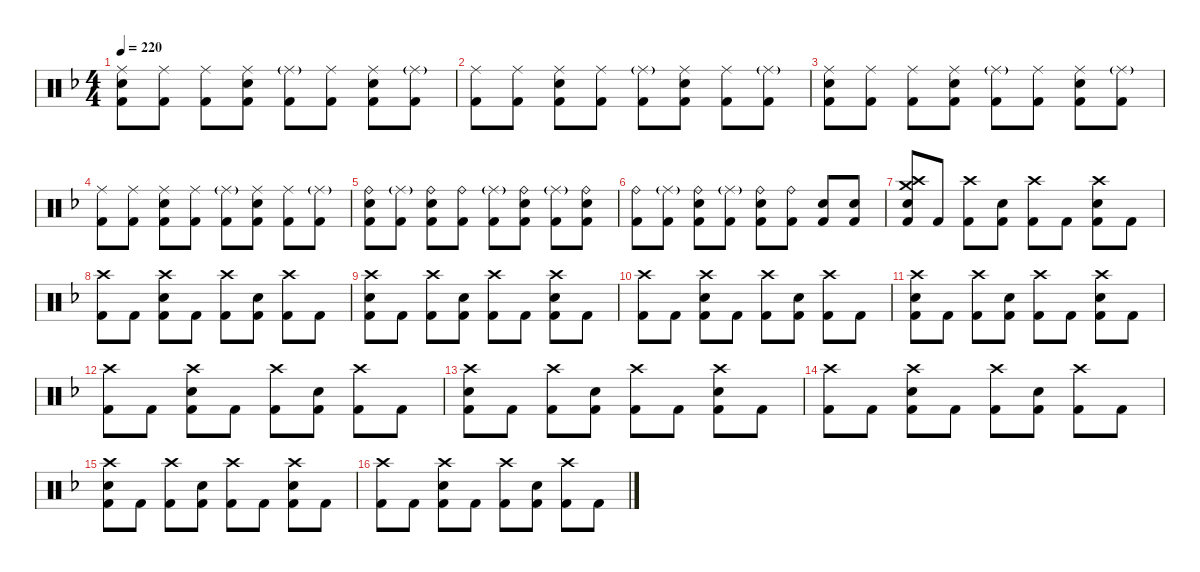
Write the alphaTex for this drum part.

\hideDynamics
\bracketExtendMode nobrackets
\singleTrackTrackNamePolicy hidden
\multiTrackTrackNamePolicy hidden
\firstSystemTrackNameMode fullname
\firstSystemTrackNameOrientation horizontal
\otherSystemsTrackNameOrientation horizontal
\track ("Drumkit" "Drums") {instrument percussion}
\staff {score}
\articulation defaults
\ts (4 4)
\tempo 220
\clef neutral
\ks dminor
("Ride (middle)"{acc forcenatural} "Snare (hit) 2"{acc forcenatural} "Kick (hit) 2"{acc forcenatural}).8{dy mf beam Down} ("Ride (middle)"{acc forcenatural} "Kick (hit) 2"{acc forcenatural}).8{beam Down} ("Ride (middle)"{acc forcenatural} "Kick (hit) 2"{acc forcenatural}).8{beam Down} ("Ride (middle)"{acc forcenatural} "Snare (hit) 2"{acc forcenatural} "Kick (hit) 2"{acc forcenatural}).8{beam Down} ("Ride (middle)"{g acc forcenatural} "Kick (hit) 2"{acc forcenatural}).8{dy f beam Down} ("Ride (middle)"{acc forcenatural} "Kick (hit) 2"{acc forcenatural}).8{dy mf beam Down} ("Ride (middle)"{acc forcenatural} "Snare (hit) 2"{acc forcenatural} "Kick (hit) 2"{acc forcenatural}).8{beam Down} ("Ride (middle)"{g acc forcenatural} "Kick (hit) 2"{acc forcenatural}).8{dy f beam Down} |
("Ride (middle)"{acc forcenatural} "Kick (hit) 2"{acc forcenatural}).8{dy mf beam Down} ("Ride (middle)"{acc forcenatural} "Kick (hit) 2"{acc forcenatural}).8{beam Down} ("Ride (middle)"{acc forcenatural} "Snare (hit) 2"{acc forcenatural} "Kick (hit) 2"{acc forcenatural}).8{beam Down} ("Ride (middle)"{acc forcenatural} "Kick (hit) 2"{acc forcenatural}).8{beam Down} ("Ride (middle)"{g acc forcenatural} "Kick (hit) 2"{acc forcenatural}).8{dy f beam Down} ("Ride (middle)"{acc forcenatural} "Snare (hit) 2"{acc forcenatural} "Kick (hit) 2"{acc forcenatural}).8{dy mf beam Down} ("Ride (middle)"{acc forcenatural} "Kick (hit) 2"{acc forcenatural}).8{beam Down} ("Ride (middle)"{g acc forcenatural} "Kick (hit) 2"{acc forcenatural}).8{dy f beam Down} |
("Ride (middle)"{acc forcenatural} "Snare (hit) 2"{acc forcenatural} "Kick (hit) 2"{acc forcenatural}).8{dy mf beam Down} ("Ride (middle)"{acc forcenatural} "Kick (hit) 2"{acc forcenatural}).8{beam Down} ("Ride (middle)"{acc forcenatural} "Kick (hit) 2"{acc forcenatural}).8{beam Down} ("Ride (middle)"{acc forcenatural} "Snare (hit) 2"{acc forcenatural} "Kick (hit) 2"{acc forcenatural}).8{beam Down} ("Ride (middle)"{g acc forcenatural} "Kick (hit) 2"{acc forcenatural}).8{dy f beam Down} ("Ride (middle)"{acc forcenatural} "Kick (hit) 2"{acc forcenatural}).8{dy mf beam Down} ("Ride (middle)"{acc forcenatural} "Snare (hit) 2"{acc forcenatural} "Kick (hit) 2"{acc forcenatural}).8{beam Down} ("Ride (middle)"{g acc forcenatural} "Kick (hit) 2"{acc forcenatural}).8{dy f beam Down} |
("Ride (middle)"{acc forcenatural} "Kick (hit) 2"{acc forcenatural}).8{dy mf beam Down} ("Ride (middle)"{acc forcenatural} "Kick (hit) 2"{acc forcenatural}).8{beam Down} ("Ride (middle)"{acc forcenatural} "Snare (hit) 2"{acc forcenatural} "Kick (hit) 2"{acc forcenatural}).8{beam Down} ("Ride (middle)"{acc forcenatural} "Kick (hit) 2"{acc forcenatural}).8{beam Down} ("Ride (middle)"{g acc forcenatural} "Kick (hit) 2"{acc forcenatural}).8{dy f beam Down} ("Ride (middle)"{acc forcenatural} "Snare (hit) 2"{acc forcenatural} "Kick (hit) 2"{acc forcenatural}).8{dy mf beam Down} ("Ride (middle)"{acc forcenatural} "Kick (hit) 2"{acc forcenatural}).8{beam Down} ("Ride (middle)"{g acc forcenatural} "Kick (hit) 2"{acc forcenatural}).8{dy f beam Down} |
("Ride (bell)"{acc forcenatural} "Snare (hit) 2"{acc forcenatural} "Kick (hit) 2"{acc forcenatural}).8{dy mf beam Down} ("Ride (middle)"{g acc forcenatural} "Kick (hit) 2"{acc forcenatural}).8{dy f beam Down} ("Ride (bell)"{acc forcenatural} "Snare (hit) 2"{acc forcenatural} "Kick (hit) 2"{acc forcenatural}).8{dy mf beam Down} ("Ride (bell)"{acc forcenatural} "Kick (hit) 2"{acc forcenatural}).8{beam Down} ("Ride (middle)"{g acc forcenatural} "Kick (hit) 2"{acc forcenatural}).8{dy f beam Down} ("Ride (bell)"{acc forcenatural} "Snare (hit) 2"{acc forcenatural} "Kick (hit) 2"{acc forcenatural}).8{dy mf beam Down} ("Ride (middle)"{g acc forcenatural} "Kick (hit) 2"{acc forcenatural}).8{dy f beam Down} ("Ride (bell)"{acc forcenatural} "Snare (hit) 2"{acc forcenatural} "Kick (hit) 2"{acc forcenatural}).8{dy mf beam Down} |
("Ride (bell)"{acc forcenatural} "Kick (hit) 2"{acc forcenatural}).8{beam Down} ("Ride (middle)"{g acc forcenatural} "Kick (hit) 2"{acc forcenatural}).8{dy f beam Down} ("Ride (bell)"{acc forcenatural} "Snare (hit) 2"{acc forcenatural} "Kick (hit) 2"{acc forcenatural}).8{dy mf beam Down} ("Ride (middle)"{g acc forcenatural} "Kick (hit) 2"{acc forcenatural}).8{dy f beam Down} ("Ride (bell)"{acc forcenatural} "Snare (hit) 2"{acc forcenatural} "Kick (hit) 2"{acc forcenatural}).8{dy mf beam Down} ("Ride (bell)"{acc forcenatural} "Kick (hit) 2"{acc forcenatural}).8{beam Down} ("Snare (hit) 2"{acc forcenatural} "Kick (hit) 2"{acc forcenatural}).8{dy f beam Up} ("Snare (hit) 2"{acc forcenatural} "Kick (hit) 2"{acc forcenatural}).8{beam Up} |
("Crash medium (hit)"{acc forcenatural} "Crash high (hit)"{acc forcenatural} "Snare (hit) 2"{acc forcenatural} "Kick (hit) 2"{acc forcenatural}).8{beam Up} "Kick (hit) 2"{acc forcenatural}.8{beam Up} ("Crash high (hit)"{acc forcenatural} "Kick (hit) 2"{acc forcenatural}).8{dy mf beam Down} ("Snare (hit) 2"{acc forcenatural} "Kick (hit) 2"{acc forcenatural}).8{dy f beam Down} ("Crash high (hit)"{acc forcenatural} "Kick (hit) 2"{acc forcenatural}).8{dy mf beam Down} "Kick (hit) 2"{acc forcenatural}.8{dy f beam Down} ("Crash high (hit)"{acc forcenatural} "Snare (hit) 2"{acc forcenatural} "Kick (hit) 2"{acc forcenatural}).8{dy mf beam Down} "Kick (hit) 2"{acc forcenatural}.8{dy f beam Down} |
("Crash high (hit)"{acc forcenatural} "Kick (hit) 2"{acc forcenatural}).8{dy mf beam Down} "Kick (hit) 2"{acc forcenatural}.8{dy f beam Down} ("Crash high (hit)"{acc forcenatural} "Snare (hit) 2"{acc forcenatural} "Kick (hit) 2"{acc forcenatural}).8{dy mf beam Down} "Kick (hit) 2"{acc forcenatural}.8{dy f beam Down} ("Crash high (hit)"{acc forcenatural} "Kick (hit) 2"{acc forcenatural}).8{dy mf beam Down} ("Snare (hit) 2"{acc forcenatural} "Kick (hit) 2"{acc forcenatural}).8{dy f beam Down} ("Crash high (hit)"{acc forcenatural} "Kick (hit) 2"{acc forcenatural}).8{dy mf beam Down} "Kick (hit) 2"{acc forcenatural}.8{dy f beam Down} |
("Crash high (hit)"{acc forcenatural} "Snare (hit) 2"{acc forcenatural} "Kick (hit) 2"{acc forcenatural}).8{dy mf beam Down} "Kick (hit) 2"{acc forcenatural}.8{dy f beam Down} ("Crash high (hit)"{acc forcenatural} "Kick (hit) 2"{acc forcenatural}).8{dy mf beam Down} ("Snare (hit) 2"{acc forcenatural} "Kick (hit) 2"{acc forcenatural}).8{dy f beam Down} ("Crash high (hit)"{acc forcenatural} "Kick (hit) 2"{acc forcenatural}).8{dy mf beam Down} "Kick (hit) 2"{acc forcenatural}.8{dy f beam Down} ("Crash high (hit)"{acc forcenatural} "Snare (hit) 2"{acc forcenatural} "Kick (hit) 2"{acc forcenatural}).8{dy mf beam Down} "Kick (hit) 2"{acc forcenatural}.8{dy f beam Down} |
("Crash high (hit)"{acc forcenatural} "Kick (hit) 2"{acc forcenatural}).8{dy mf beam Down} "Kick (hit) 2"{acc forcenatural}.8{dy f beam Down} ("Crash high (hit)"{acc forcenatural} "Snare (hit) 2"{acc forcenatural} "Kick (hit) 2"{acc forcenatural}).8{dy mf beam Down} "Kick (hit) 2"{acc forcenatural}.8{dy f beam Down} ("Crash high (hit)"{acc forcenatural} "Kick (hit) 2"{acc forcenatural}).8{dy mf beam Down} ("Snare (hit) 2"{acc forcenatural} "Kick (hit) 2"{acc forcenatural}).8{dy f beam Down} ("Crash high (hit)"{acc forcenatural} "Kick (hit) 2"{acc forcenatural}).8{dy mf beam Down} "Kick (hit) 2"{acc forcenatural}.8{dy f beam Down} |
("Crash high (hit)"{acc forcenatural} "Snare (hit) 2"{acc forcenatural} "Kick (hit) 2"{acc forcenatural}).8{dy mf beam Down} "Kick (hit) 2"{acc forcenatural}.8{dy f beam Down} ("Crash high (hit)"{acc forcenatural} "Kick (hit) 2"{acc forcenatural}).8{dy mf beam Down} ("Snare (hit) 2"{acc forcenatural} "Kick (hit) 2"{acc forcenatural}).8{dy f beam Down} ("Crash high (hit)"{acc forcenatural} "Kick (hit) 2"{acc forcenatural}).8{dy mf beam Down} "Kick (hit) 2"{acc forcenatural}.8{dy f beam Down} ("Crash high (hit)"{acc forcenatural} "Snare (hit) 2"{acc forcenatural} "Kick (hit) 2"{acc forcenatural}).8{dy mf beam Down} "Kick (hit) 2"{acc forcenatural}.8{dy f beam Down} |
("Crash high (hit)"{acc forcenatural} "Kick (hit) 2"{acc forcenatural}).8{dy mf beam Down} "Kick (hit) 2"{acc forcenatural}.8{dy f beam Down} ("Crash high (hit)"{acc forcenatural} "Snare (hit) 2"{acc forcenatural} "Kick (hit) 2"{acc forcenatural}).8{dy mf beam Down} "Kick (hit) 2"{acc forcenatural}.8{dy f beam Down} ("Crash high (hit)"{acc forcenatural} "Kick (hit) 2"{acc forcenatural}).8{dy mf beam Down} ("Snare (hit) 2"{acc forcenatural} "Kick (hit) 2"{acc forcenatural}).8{dy f beam Down} ("Crash high (hit)"{acc forcenatural} "Kick (hit) 2"{acc forcenatural}).8{dy mf beam Down} "Kick (hit) 2"{acc forcenatural}.8{dy f beam Down} |
("Crash high (hit)"{acc forcenatural} "Snare (hit) 2"{acc forcenatural} "Kick (hit) 2"{acc forcenatural}).8{dy mf beam Down} "Kick (hit) 2"{acc forcenatural}.8{dy f beam Down} ("Crash high (hit)"{acc forcenatural} "Kick (hit) 2"{acc forcenatural}).8{dy mf beam Down} ("Snare (hit) 2"{acc forcenatural} "Kick (hit) 2"{acc forcenatural}).8{dy f beam Down} ("Crash high (hit)"{acc forcenatural} "Kick (hit) 2"{acc forcenatural}).8{dy mf beam Down} "Kick (hit) 2"{acc forcenatural}.8{dy f beam Down} ("Crash high (hit)"{acc forcenatural} "Snare (hit) 2"{acc forcenatural} "Kick (hit) 2"{acc forcenatural}).8{dy mf beam Down} "Kick (hit) 2"{acc forcenatural}.8{dy f beam Down} |
("Crash high (hit)"{acc forcenatural} "Kick (hit) 2"{acc forcenatural}).8{dy mf beam Down} "Kick (hit) 2"{acc forcenatural}.8{dy f beam Down} ("Crash high (hit)"{acc forcenatural} "Snare (hit) 2"{acc forcenatural} "Kick (hit) 2"{acc forcenatural}).8{dy mf beam Down} "Kick (hit) 2"{acc forcenatural}.8{dy f beam Down} ("Crash high (hit)"{acc forcenatural} "Kick (hit) 2"{acc forcenatural}).8{dy mf beam Down} ("Snare (hit) 2"{acc forcenatural} "Kick (hit) 2"{acc forcenatural}).8{dy f beam Down} ("Crash high (hit)"{acc forcenatural} "Kick (hit) 2"{acc forcenatural}).8{dy mf beam Down} "Kick (hit) 2"{acc forcenatural}.8{dy f beam Down} |
("Crash high (hit)"{acc forcenatural} "Snare (hit) 2"{acc forcenatural} "Kick (hit) 2"{acc forcenatural}).8{dy mf beam Down} "Kick (hit) 2"{acc forcenatural}.8{dy f beam Down} ("Crash high (hit)"{acc forcenatural} "Kick (hit) 2"{acc forcenatural}).8{dy mf beam Down} ("Snare (hit) 2"{acc forcenatural} "Kick (hit) 2"{acc forcenatural}).8{dy f beam Down} ("Crash high (hit)"{acc forcenatural} "Kick (hit) 2"{acc forcenatural}).8{dy mf beam Down} "Kick (hit) 2"{acc forcenatural}.8{dy f beam Down} ("Crash high (hit)"{acc forcenatural} "Snare (hit) 2"{acc forcenatural} "Kick (hit) 2"{acc forcenatural}).8{dy mf beam Down} "Kick (hit) 2"{acc forcenatural}.8{dy f beam Down} |
("Crash high (hit)"{acc forcenatural} "Kick (hit) 2"{acc forcenatural}).8{dy mf beam Down} "Kick (hit) 2"{acc forcenatural}.8{dy f beam Down} ("Crash high (hit)"{acc forcenatural} "Snare (hit) 2"{acc forcenatural} "Kick (hit) 2"{acc forcenatural}).8{dy mf beam Down} "Kick (hit) 2"{acc forcenatural}.8{dy f beam Down} ("Crash high (hit)"{acc forcenatural} "Kick (hit) 2"{acc forcenatural}).8{dy mf beam Down} ("Snare (hit) 2"{acc forcenatural} "Kick (hit) 2"{acc forcenatural}).8{dy f beam Down} ("Crash high (hit)"{acc forcenatural} "Kick (hit) 2"{acc forcenatural}).8{dy mf beam Down} "Kick (hit) 2"{acc forcenatural}.8{dy f beam Down}
